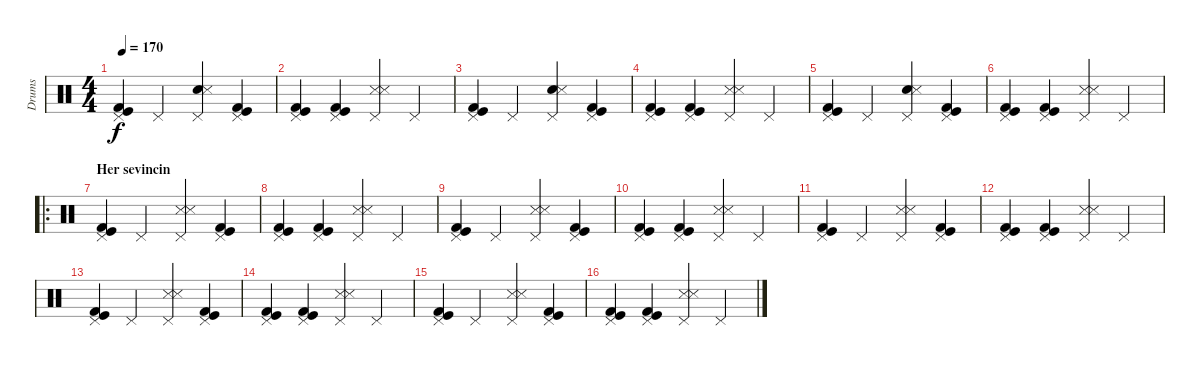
\track ("Drums" "Drums") {instrument percussion}
\staff {score}
\articulation defaults
\ts (4 4)
\tempo 170
\clef neutral
\ks c
("Pedal Hi-Hat (hit)" "Kick (hit)" "Kick (hit) 2").4{dy f} "Pedal Hi-Hat (hit)".4 ("Pedal Hi-Hat (hit)" "Snare (hit) 2" "Snare (side stick) 3").4 ("Pedal Hi-Hat (hit)" "Kick (hit)" "Kick (hit) 2").4 |
("Pedal Hi-Hat (hit)" "Kick (hit)" "Kick (hit) 2").4 ("Pedal Hi-Hat (hit)" "Kick (hit)" "Kick (hit) 2").4 ("Pedal Hi-Hat (hit)" "Snare (side stick) 3" "Snare (side stick) 3").4 "Pedal Hi-Hat (hit)".4 |
("Pedal Hi-Hat (hit)" "Kick (hit)" "Kick (hit) 2").4 "Pedal Hi-Hat (hit)".4 ("Pedal Hi-Hat (hit)" "Snare (hit) 2" "Snare (side stick) 3").4 ("Pedal Hi-Hat (hit)" "Kick (hit)" "Kick (hit) 2").4 |
("Pedal Hi-Hat (hit)" "Kick (hit)" "Kick (hit) 2").4 ("Pedal Hi-Hat (hit)" "Kick (hit)" "Kick (hit) 2").4 ("Pedal Hi-Hat (hit)" "Snare (side stick) 3" "Snare (side stick) 3").4 "Pedal Hi-Hat (hit)".4 |
("Pedal Hi-Hat (hit)" "Kick (hit)" "Kick (hit) 2").4 "Pedal Hi-Hat (hit)".4 ("Pedal Hi-Hat (hit)" "Snare (hit) 2" "Snare (side stick) 3").4 ("Pedal Hi-Hat (hit)" "Kick (hit)" "Kick (hit) 2").4 |
("Pedal Hi-Hat (hit)" "Kick (hit)" "Kick (hit) 2").4 ("Pedal Hi-Hat (hit)" "Kick (hit)" "Kick (hit) 2").4 ("Pedal Hi-Hat (hit)" "Snare (side stick) 3" "Snare (side stick) 3").4 "Pedal Hi-Hat (hit)".4 |
\ro
\section ("" "Her sevincin")
("Pedal Hi-Hat (hit)" "Kick (hit)" "Kick (hit) 2").4 "Pedal Hi-Hat (hit)".4 ("Pedal Hi-Hat (hit)" "Snare (side stick) 3" "Snare (side stick) 3").4 ("Pedal Hi-Hat (hit)" "Kick (hit)" "Kick (hit) 2").4 |
("Pedal Hi-Hat (hit)" "Kick (hit)" "Kick (hit) 2").4 ("Pedal Hi-Hat (hit)" "Kick (hit)" "Kick (hit) 2").4 ("Pedal Hi-Hat (hit)" "Snare (side stick) 3" "Snare (side stick) 3").4 "Pedal Hi-Hat (hit)".4 |
("Pedal Hi-Hat (hit)" "Kick (hit)" "Kick (hit) 2").4 "Pedal Hi-Hat (hit)".4 ("Pedal Hi-Hat (hit)" "Snare (side stick) 3" "Snare (side stick) 3").4 ("Pedal Hi-Hat (hit)" "Kick (hit)" "Kick (hit) 2").4 |
("Pedal Hi-Hat (hit)" "Kick (hit)" "Kick (hit) 2").4 ("Pedal Hi-Hat (hit)" "Kick (hit)" "Kick (hit) 2").4 ("Pedal Hi-Hat (hit)" "Snare (side stick) 3" "Snare (side stick) 3").4 "Pedal Hi-Hat (hit)".4 |
("Pedal Hi-Hat (hit)" "Kick (hit)" "Kick (hit) 2").4 "Pedal Hi-Hat (hit)".4 ("Pedal Hi-Hat (hit)" "Snare (side stick) 3" "Snare (side stick) 3").4 ("Pedal Hi-Hat (hit)" "Kick (hit)" "Kick (hit) 2").4 |
("Pedal Hi-Hat (hit)" "Kick (hit)" "Kick (hit) 2").4 ("Pedal Hi-Hat (hit)" "Kick (hit)" "Kick (hit) 2").4 ("Pedal Hi-Hat (hit)" "Snare (side stick) 3" "Snare (side stick) 3").4 "Pedal Hi-Hat (hit)".4 |
("Pedal Hi-Hat (hit)" "Kick (hit)" "Kick (hit) 2").4 "Pedal Hi-Hat (hit)".4 ("Pedal Hi-Hat (hit)" "Snare (side stick) 3" "Snare (side stick) 3").4 ("Pedal Hi-Hat (hit)" "Kick (hit)" "Kick (hit) 2").4 |
("Pedal Hi-Hat (hit)" "Kick (hit)" "Kick (hit) 2").4 ("Pedal Hi-Hat (hit)" "Kick (hit)" "Kick (hit) 2").4 ("Pedal Hi-Hat (hit)" "Snare (side stick) 3" "Snare (side stick) 3").4 "Pedal Hi-Hat (hit)".4 |
("Pedal Hi-Hat (hit)" "Kick (hit)" "Kick (hit) 2").4 "Pedal Hi-Hat (hit)".4 ("Pedal Hi-Hat (hit)" "Snare (side stick) 3" "Snare (side stick) 3").4 ("Pedal Hi-Hat (hit)" "Kick (hit)" "Kick (hit) 2").4 |
("Pedal Hi-Hat (hit)" "Kick (hit)" "Kick (hit) 2").4 ("Pedal Hi-Hat (hit)" "Kick (hit)" "Kick (hit) 2").4 ("Pedal Hi-Hat (hit)" "Snare (side stick) 3" "Snare (side stick) 3").4 "Pedal Hi-Hat (hit)".4
